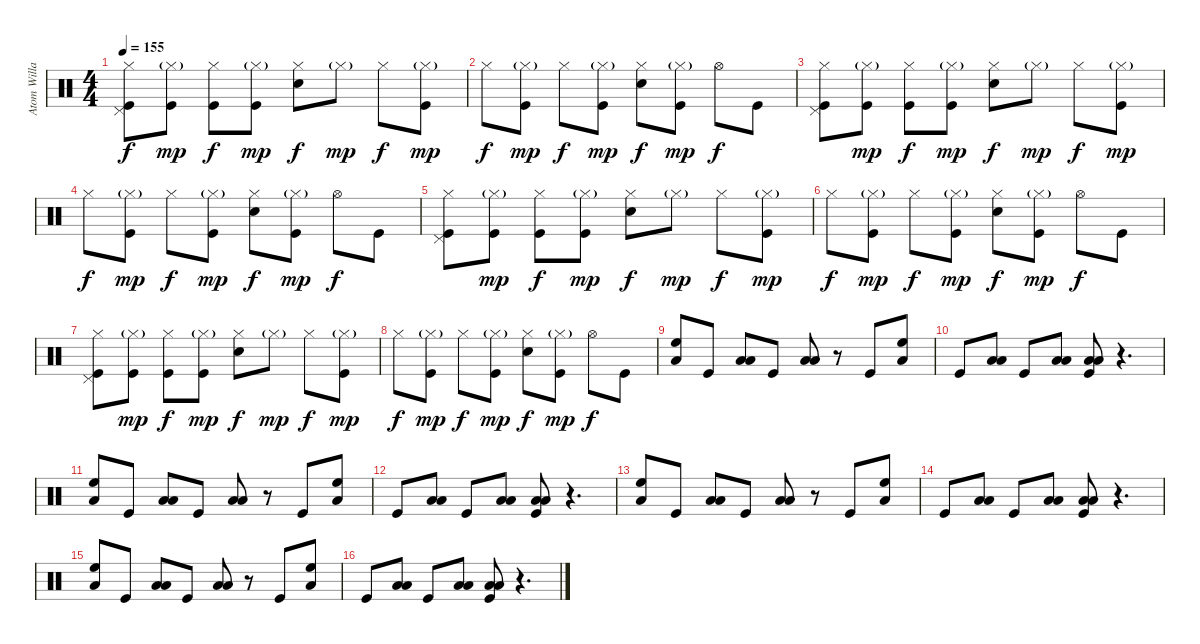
\track ("Atom Willard Drums" "Atom Willa") {instrument percussion}
\staff {score}
\articulation defaults
\ts (4 4)
\tempo 155
\clef neutral
\ks c
("Hi-Hat (closed)" "Kick (hit)" "Pedal Hi-Hat (hit)").8{dy f} ("Hi-Hat (closed)"{g} "Kick (hit)").8{dy mp} ("Hi-Hat (closed)" "Kick (hit)").8{dy f} ("Hi-Hat (closed)"{g} "Kick (hit)").8{dy mp} ("Hi-Hat (closed)" "Electric Snare (hit)").8{dy f} "Hi-Hat (closed)"{g}.8{dy mp} "Hi-Hat (closed)".8{dy f} ("Hi-Hat (closed)"{g} "Kick (hit)").8{dy mp} |
"Hi-Hat (closed)".8{dy f} ("Hi-Hat (closed)"{g} "Kick (hit)").8{dy mp} "Hi-Hat (closed)".8{dy f} ("Hi-Hat (closed)"{g} "Kick (hit)").8{dy mp} ("Electric Snare (hit)" "Hi-Hat (closed)").8{dy f} ("Hi-Hat (closed)"{g} "Kick (hit)").8{dy mp} "Hi-Hat (open)".8{dy f} "Kick (hit)".8 |
("Hi-Hat (closed)" "Kick (hit)" "Pedal Hi-Hat (hit)").8 ("Hi-Hat (closed)"{g} "Kick (hit)").8{dy mp} ("Hi-Hat (closed)" "Kick (hit)").8{dy f} ("Hi-Hat (closed)"{g} "Kick (hit)").8{dy mp} ("Hi-Hat (closed)" "Electric Snare (hit)").8{dy f} "Hi-Hat (closed)"{g}.8{dy mp} "Hi-Hat (closed)".8{dy f} ("Hi-Hat (closed)"{g} "Kick (hit)").8{dy mp} |
"Hi-Hat (closed)".8{dy f} ("Hi-Hat (closed)"{g} "Kick (hit)").8{dy mp} "Hi-Hat (closed)".8{dy f} ("Hi-Hat (closed)"{g} "Kick (hit)").8{dy mp} ("Electric Snare (hit)" "Hi-Hat (closed)").8{dy f} ("Hi-Hat (closed)"{g} "Kick (hit)").8{dy mp} "Hi-Hat (open)".8{dy f} "Kick (hit)".8 |
("Hi-Hat (closed)" "Kick (hit)" "Pedal Hi-Hat (hit)").8 ("Hi-Hat (closed)"{g} "Kick (hit)").8{dy mp} ("Hi-Hat (closed)" "Kick (hit)").8{dy f} ("Hi-Hat (closed)"{g} "Kick (hit)").8{dy mp} ("Hi-Hat (closed)" "Electric Snare (hit)").8{dy f} "Hi-Hat (closed)"{g}.8{dy mp} "Hi-Hat (closed)".8{dy f} ("Hi-Hat (closed)"{g} "Kick (hit)").8{dy mp} |
"Hi-Hat (closed)".8{dy f} ("Hi-Hat (closed)"{g} "Kick (hit)").8{dy mp} "Hi-Hat (closed)".8{dy f} ("Hi-Hat (closed)"{g} "Kick (hit)").8{dy mp} ("Electric Snare (hit)" "Hi-Hat (closed)").8{dy f} ("Hi-Hat (closed)"{g} "Kick (hit)").8{dy mp} "Hi-Hat (open)".8{dy f} "Kick (hit)".8 |
("Hi-Hat (closed)" "Kick (hit)" "Pedal Hi-Hat (hit)").8 ("Hi-Hat (closed)"{g} "Kick (hit)").8{dy mp} ("Hi-Hat (closed)" "Kick (hit)").8{dy f} ("Hi-Hat (closed)"{g} "Kick (hit)").8{dy mp} ("Hi-Hat (closed)" "Electric Snare (hit)").8{dy f} "Hi-Hat (closed)"{g}.8{dy mp} "Hi-Hat (closed)".8{dy f} ("Hi-Hat (closed)"{g} "Kick (hit)").8{dy mp} |
"Hi-Hat (closed)".8{dy f} ("Hi-Hat (closed)"{g} "Kick (hit)").8{dy mp} "Hi-Hat (closed)".8{dy f} ("Hi-Hat (closed)"{g} "Kick (hit)").8{dy mp} ("Electric Snare (hit)" "Hi-Hat (closed)").8{dy f} ("Hi-Hat (closed)"{g} "Kick (hit)").8{dy mp} "Hi-Hat (open)".8{dy f} "Kick (hit)".8 |
("High Floor Tom (hit)" "Low Tom (hit)").8 "Kick (hit)".8 ("Low Tom (hit)" "Low Tom (hit)").8 "Kick (hit)".8 ("Low Tom (hit)" "Low Tom (hit)").8 r.8 "Kick (hit)".8 ("High Floor Tom (hit)" "Low Tom (hit)").8 |
"Kick (hit)".8 ("Low Tom (hit)" "Low Tom (hit)").8 "Kick (hit)".8 ("Low Tom (hit)" "Low Tom (hit)").8 ("Low Tom (hit)" "Low Tom (hit)" "Kick (hit)").8 r.4{d} |
("High Floor Tom (hit)" "Low Tom (hit)").8 "Kick (hit)".8 ("Low Tom (hit)" "Low Tom (hit)").8 "Kick (hit)".8 ("Low Tom (hit)" "Low Tom (hit)").8 r.8 "Kick (hit)".8 ("High Floor Tom (hit)" "Low Tom (hit)").8 |
"Kick (hit)".8 ("Low Tom (hit)" "Low Tom (hit)").8 "Kick (hit)".8 ("Low Tom (hit)" "Low Tom (hit)").8 ("Low Tom (hit)" "Low Tom (hit)" "Kick (hit)").8 r.4{d} |
("High Floor Tom (hit)" "Low Tom (hit)").8 "Kick (hit)".8 ("Low Tom (hit)" "Low Tom (hit)").8 "Kick (hit)".8 ("Low Tom (hit)" "Low Tom (hit)").8 r.8 "Kick (hit)".8 ("High Floor Tom (hit)" "Low Tom (hit)").8 |
"Kick (hit)".8 ("Low Tom (hit)" "Low Tom (hit)").8 "Kick (hit)".8 ("Low Tom (hit)" "Low Tom (hit)").8 ("Low Tom (hit)" "Low Tom (hit)" "Kick (hit)").8 r.4{d} |
("High Floor Tom (hit)" "Low Tom (hit)").8 "Kick (hit)".8 ("Low Tom (hit)" "Low Tom (hit)").8 "Kick (hit)".8 ("Low Tom (hit)" "Low Tom (hit)").8 r.8 "Kick (hit)".8 ("High Floor Tom (hit)" "Low Tom (hit)").8 |
"Kick (hit)".8 ("Low Tom (hit)" "Low Tom (hit)").8 "Kick (hit)".8 ("Low Tom (hit)" "Low Tom (hit)").8 ("Low Tom (hit)" "Low Tom (hit)" "Kick (hit)").8 r.4{d}
